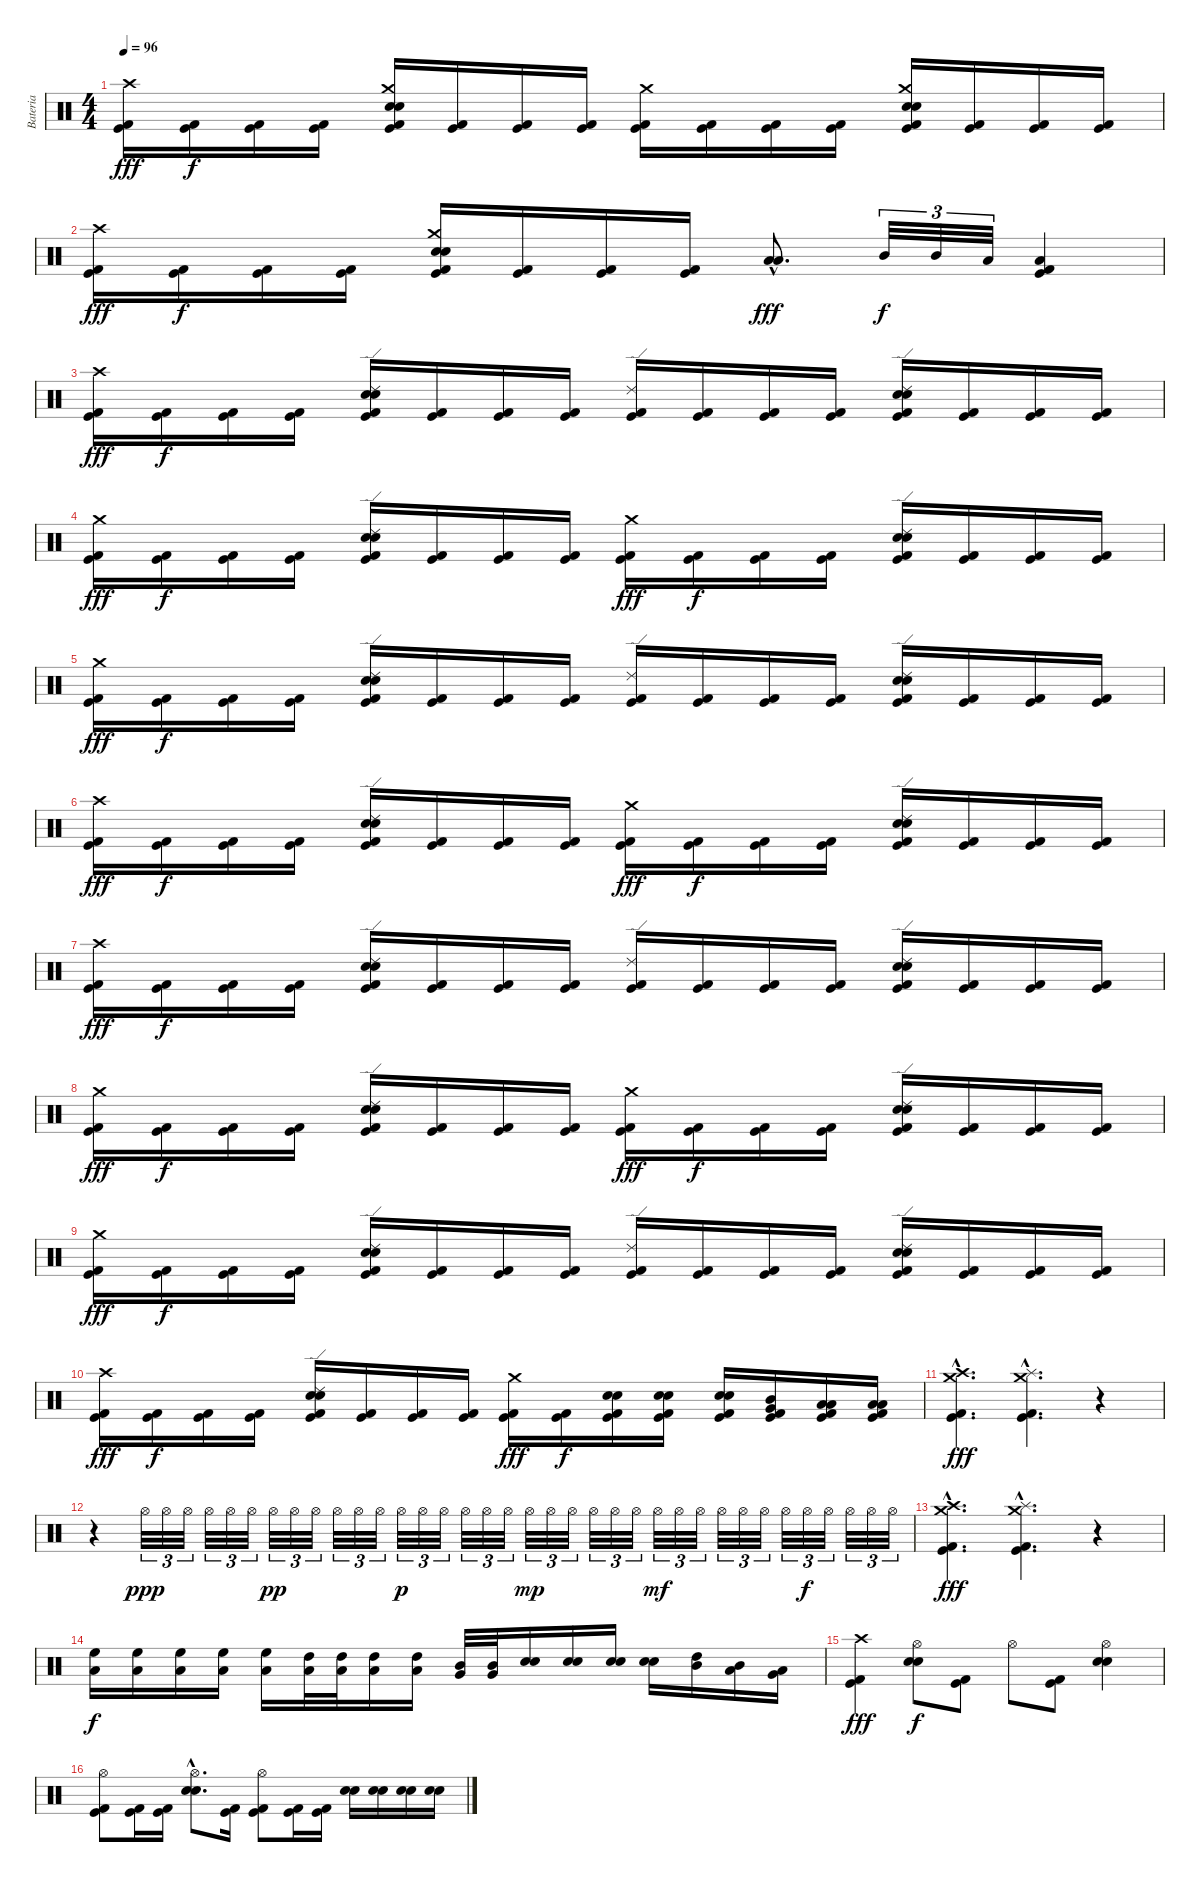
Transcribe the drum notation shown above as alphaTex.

\track ("Bateria" "Bateria") {instrument percussion}
\staff {score}
\articulation defaults
\ts (4 4)
\tempo 96
\clef neutral
\ks c
("Crash high (hit)" "Kick (hit) 2" "Kick (hit)").16{dy fff} ("Kick (hit) 2" "Kick (hit)").16{dy f} ("Kick (hit) 2" "Kick (hit)").16 ("Kick (hit) 2" "Kick (hit)").16 ("Crash medium (hit)" "Electric Snare (hit)" "Snare (hit) 2" "Kick (hit) 2" "Kick (hit)").16 ("Kick (hit) 2" "Kick (hit)").16 ("Kick (hit) 2" "Kick (hit)").16 ("Kick (hit) 2" "Kick (hit)").16 ("Crash medium (hit)" "Kick (hit) 2" "Kick (hit)").16 ("Kick (hit) 2" "Kick (hit)").16 ("Kick (hit) 2" "Kick (hit)").16 ("Kick (hit) 2" "Kick (hit)").16 ("Crash medium (hit)" "Electric Snare (hit)" "Snare (hit) 2" "Kick (hit) 2" "Kick (hit)").16 ("Kick (hit) 2" "Kick (hit)").16 ("Kick (hit) 2" "Kick (hit)").16 ("Kick (hit) 2" "Kick (hit)").16 |
("Crash high (hit)" "Kick (hit) 2" "Kick (hit)").16{dy fff} ("Kick (hit) 2" "Kick (hit)").16{dy f} ("Kick (hit) 2" "Kick (hit)").16 ("Kick (hit) 2" "Kick (hit)").16 ("Crash medium (hit)" "Electric Snare (hit)" "Snare (hit) 2" "Kick (hit) 2" "Kick (hit)").16 ("Kick (hit) 2" "Kick (hit)").16 ("Kick (hit) 2" "Kick (hit)").16 ("Kick (hit) 2" "Kick (hit)").16 ("Low Tom (hit)"{hac} "Low Floor Tom (hit)"{hac}).8{d dy fff} "Mid Tom (hit)".32{tu (3 2) dy f} "Mid Tom (hit)".32{tu (3 2)} "Low Tom (hit)".32{tu (3 2)} ("Low Tom (hit)" "Kick (hit) 2" "Kick (hit)").4 |
("Crash high (hit)" "Kick (hit) 2" "Kick (hit)").16{dy fff} ("Kick (hit) 2" "Kick (hit)").16{dy f} ("Kick (hit) 2" "Kick (hit)").16 ("Kick (hit) 2" "Kick (hit)").16 ("Ride (edge) 2" "Electric Snare (hit)" "Snare (hit) 2" "Kick (hit) 2" "Kick (hit)").16 ("Kick (hit) 2" "Kick (hit)").16 ("Kick (hit) 2" "Kick (hit)").16 ("Kick (hit) 2" "Kick (hit)").16 ("Ride (edge) 2" "Kick (hit) 2" "Kick (hit)").16 ("Kick (hit) 2" "Kick (hit)").16 ("Kick (hit) 2" "Kick (hit)").16 ("Kick (hit) 2" "Kick (hit)").16 ("Ride (edge) 2" "Electric Snare (hit)" "Snare (hit) 2" "Kick (hit) 2" "Kick (hit)").16 ("Kick (hit) 2" "Kick (hit)").16 ("Kick (hit) 2" "Kick (hit)").16 ("Kick (hit) 2" "Kick (hit)").16 |
("Crash medium (hit)" "Kick (hit) 2" "Kick (hit)").16{dy fff} ("Kick (hit) 2" "Kick (hit)").16{dy f} ("Kick (hit) 2" "Kick (hit)").16 ("Kick (hit) 2" "Kick (hit)").16 ("Ride (edge) 2" "Electric Snare (hit)" "Snare (hit) 2" "Kick (hit) 2" "Kick (hit)").16 ("Kick (hit) 2" "Kick (hit)").16 ("Kick (hit) 2" "Kick (hit)").16 ("Kick (hit) 2" "Kick (hit)").16 ("Crash medium (hit)" "Kick (hit) 2" "Kick (hit)").16{dy fff} ("Kick (hit) 2" "Kick (hit)").16{dy f} ("Kick (hit) 2" "Kick (hit)").16 ("Kick (hit) 2" "Kick (hit)").16 ("Ride (edge) 2" "Electric Snare (hit)" "Snare (hit) 2" "Kick (hit) 2" "Kick (hit)").16 ("Kick (hit) 2" "Kick (hit)").16 ("Kick (hit) 2" "Kick (hit)").16 ("Kick (hit) 2" "Kick (hit)").16 |
("Crash medium (hit)" "Kick (hit) 2" "Kick (hit)").16{dy fff} ("Kick (hit) 2" "Kick (hit)").16{dy f} ("Kick (hit) 2" "Kick (hit)").16 ("Kick (hit) 2" "Kick (hit)").16 ("Ride (edge) 2" "Electric Snare (hit)" "Snare (hit) 2" "Kick (hit) 2" "Kick (hit)").16 ("Kick (hit) 2" "Kick (hit)").16 ("Kick (hit) 2" "Kick (hit)").16 ("Kick (hit) 2" "Kick (hit)").16 ("Ride (edge) 2" "Kick (hit) 2" "Kick (hit)").16 ("Kick (hit) 2" "Kick (hit)").16 ("Kick (hit) 2" "Kick (hit)").16 ("Kick (hit) 2" "Kick (hit)").16 ("Ride (edge) 2" "Electric Snare (hit)" "Snare (hit) 2" "Kick (hit) 2" "Kick (hit)").16 ("Kick (hit) 2" "Kick (hit)").16 ("Kick (hit) 2" "Kick (hit)").16 ("Kick (hit) 2" "Kick (hit)").16 |
("Crash high (hit)" "Kick (hit) 2" "Kick (hit)").16{dy fff} ("Kick (hit) 2" "Kick (hit)").16{dy f} ("Kick (hit) 2" "Kick (hit)").16 ("Kick (hit) 2" "Kick (hit)").16 ("Ride (edge) 2" "Electric Snare (hit)" "Snare (hit) 2" "Kick (hit) 2" "Kick (hit)").16 ("Kick (hit) 2" "Kick (hit)").16 ("Kick (hit) 2" "Kick (hit)").16 ("Kick (hit) 2" "Kick (hit)").16 ("Crash medium (hit)" "Kick (hit) 2" "Kick (hit)").16{dy fff} ("Kick (hit) 2" "Kick (hit)").16{dy f} ("Kick (hit) 2" "Kick (hit)").16 ("Kick (hit) 2" "Kick (hit)").16 ("Ride (edge) 2" "Electric Snare (hit)" "Snare (hit) 2" "Kick (hit) 2" "Kick (hit)").16 ("Kick (hit) 2" "Kick (hit)").16 ("Kick (hit) 2" "Kick (hit)").16 ("Kick (hit) 2" "Kick (hit)").16 |
("Crash high (hit)" "Kick (hit) 2" "Kick (hit)").16{dy fff} ("Kick (hit) 2" "Kick (hit)").16{dy f} ("Kick (hit) 2" "Kick (hit)").16 ("Kick (hit) 2" "Kick (hit)").16 ("Ride (edge) 2" "Electric Snare (hit)" "Snare (hit) 2" "Kick (hit) 2" "Kick (hit)").16 ("Kick (hit) 2" "Kick (hit)").16 ("Kick (hit) 2" "Kick (hit)").16 ("Kick (hit) 2" "Kick (hit)").16 ("Ride (edge) 2" "Kick (hit) 2" "Kick (hit)").16 ("Kick (hit) 2" "Kick (hit)").16 ("Kick (hit) 2" "Kick (hit)").16 ("Kick (hit) 2" "Kick (hit)").16 ("Ride (edge) 2" "Electric Snare (hit)" "Snare (hit) 2" "Kick (hit) 2" "Kick (hit)").16 ("Kick (hit) 2" "Kick (hit)").16 ("Kick (hit) 2" "Kick (hit)").16 ("Kick (hit) 2" "Kick (hit)").16 |
("Crash medium (hit)" "Kick (hit) 2" "Kick (hit)").16{dy fff} ("Kick (hit) 2" "Kick (hit)").16{dy f} ("Kick (hit) 2" "Kick (hit)").16 ("Kick (hit) 2" "Kick (hit)").16 ("Ride (edge) 2" "Electric Snare (hit)" "Snare (hit) 2" "Kick (hit) 2" "Kick (hit)").16 ("Kick (hit) 2" "Kick (hit)").16 ("Kick (hit) 2" "Kick (hit)").16 ("Kick (hit) 2" "Kick (hit)").16 ("Crash medium (hit)" "Kick (hit) 2" "Kick (hit)").16{dy fff} ("Kick (hit) 2" "Kick (hit)").16{dy f} ("Kick (hit) 2" "Kick (hit)").16 ("Kick (hit) 2" "Kick (hit)").16 ("Ride (edge) 2" "Electric Snare (hit)" "Snare (hit) 2" "Kick (hit) 2" "Kick (hit)").16 ("Kick (hit) 2" "Kick (hit)").16 ("Kick (hit) 2" "Kick (hit)").16 ("Kick (hit) 2" "Kick (hit)").16 |
("Crash medium (hit)" "Kick (hit) 2" "Kick (hit)").16{dy fff} ("Kick (hit) 2" "Kick (hit)").16{dy f} ("Kick (hit) 2" "Kick (hit)").16 ("Kick (hit) 2" "Kick (hit)").16 ("Ride (edge) 2" "Electric Snare (hit)" "Snare (hit) 2" "Kick (hit) 2" "Kick (hit)").16 ("Kick (hit) 2" "Kick (hit)").16 ("Kick (hit) 2" "Kick (hit)").16 ("Kick (hit) 2" "Kick (hit)").16 ("Ride (edge) 2" "Kick (hit) 2" "Kick (hit)").16 ("Kick (hit) 2" "Kick (hit)").16 ("Kick (hit) 2" "Kick (hit)").16 ("Kick (hit) 2" "Kick (hit)").16 ("Ride (edge) 2" "Electric Snare (hit)" "Snare (hit) 2" "Kick (hit) 2" "Kick (hit)").16 ("Kick (hit) 2" "Kick (hit)").16 ("Kick (hit) 2" "Kick (hit)").16 ("Kick (hit) 2" "Kick (hit)").16 |
("Crash high (hit)" "Kick (hit) 2" "Kick (hit)").16{dy fff} ("Kick (hit) 2" "Kick (hit)").16{dy f} ("Kick (hit) 2" "Kick (hit)").16 ("Kick (hit) 2" "Kick (hit)").16 ("Ride (edge) 2" "Electric Snare (hit)" "Snare (hit) 2" "Kick (hit) 2" "Kick (hit)").16 ("Kick (hit) 2" "Kick (hit)").16 ("Kick (hit) 2" "Kick (hit)").16 ("Kick (hit) 2" "Kick (hit)").16 ("Crash medium (hit)" "Kick (hit) 2" "Kick (hit)").16{dy fff} ("Kick (hit) 2" "Kick (hit)").16{dy f} ("Electric Snare (hit)" "Snare (hit) 2" "Kick (hit) 2" "Kick (hit)").16 ("Electric Snare (hit)" "Snare (hit) 2" "Kick (hit) 2" "Kick (hit)").16 ("Electric Snare (hit)" "Snare (hit) 2" "Kick (hit) 2" "Kick (hit)").16 ("Mid Tom (hit)" "Very Low Tom (hit)" "Kick (hit) 2" "Kick (hit)").16 ("Low Tom (hit)" "Low Floor Tom (hit)" "Kick (hit) 2" "Kick (hit)").16 ("Low Tom (hit)" "Low Floor Tom (hit)" "Kick (hit) 2" "Kick (hit)").16 |
("Crash high (hit)"{hac} "Crash medium (hit)"{hac} "Kick (hit) 2"{hac} "Kick (hit)"{hac}).4{d dy fff} ("Crash medium (hit)"{hac} "Splash (hit)"{hac} "Kick (hit) 2"{hac} "Kick (hit)"{hac}).4{d} r.4 |
r.4 "Hi-Hat (open)".32{tu (3 2) dy ppp} "Hi-Hat (open)".32{tu (3 2)} "Hi-Hat (open)".32{tu (3 2)} "Hi-Hat (open)".32{tu (3 2)} "Hi-Hat (open)".32{tu (3 2)} "Hi-Hat (open)".32{tu (3 2)} "Hi-Hat (open)".32{tu (3 2) dy pp} "Hi-Hat (open)".32{tu (3 2)} "Hi-Hat (open)".32{tu (3 2)} "Hi-Hat (open)".32{tu (3 2)} "Hi-Hat (open)".32{tu (3 2)} "Hi-Hat (open)".32{tu (3 2)} "Hi-Hat (open)".32{tu (3 2) dy p} "Hi-Hat (open)".32{tu (3 2)} "Hi-Hat (open)".32{tu (3 2)} "Hi-Hat (open)".32{tu (3 2)} "Hi-Hat (open)".32{tu (3 2)} "Hi-Hat (open)".32{tu (3 2)} "Hi-Hat (open)".32{tu (3 2) dy mp} "Hi-Hat (open)".32{tu (3 2)} "Hi-Hat (open)".32{tu (3 2)} "Hi-Hat (open)".32{tu (3 2)} "Hi-Hat (open)".32{tu (3 2)} "Hi-Hat (open)".32{tu (3 2)} "Hi-Hat (open)".32{tu (3 2) dy mf} "Hi-Hat (open)".32{tu (3 2)} "Hi-Hat (open)".32{tu (3 2)} "Hi-Hat (open)".32{tu (3 2)} "Hi-Hat (open)".32{tu (3 2)} "Hi-Hat (open)".32{tu (3 2)} "Hi-Hat (open)".32{tu (3 2)} "Hi-Hat (open)".32{tu (3 2) dy f} "Hi-Hat (open)".32{tu (3 2)} "Hi-Hat (open)".32{tu (3 2)} "Hi-Hat (open)".32{tu (3 2)} "Hi-Hat (open)".32{tu (3 2)} |
("Crash high (hit)"{hac} "Crash medium (hit)"{hac} "Kick (hit) 2"{hac} "Kick (hit)"{hac}).4{d dy fff} ("Crash medium (hit)"{hac} "Splash (hit)"{hac} "Kick (hit) 2"{hac} "Kick (hit)"{hac}).4{d} r.4 |
("High Floor Tom (hit)" "Low Tom (hit)").16{dy f} ("High Floor Tom (hit)" "Low Tom (hit)").16 ("High Floor Tom (hit)" "Low Tom (hit)").16 ("High Floor Tom (hit)" "Low Tom (hit)").16 ("High Floor Tom (hit)" "Low Tom (hit)").16 ("High Tom (hit)" "Low Tom (hit)").32 ("High Tom (hit)" "Low Tom (hit)").32 ("High Tom (hit)" "Low Tom (hit)").16 ("High Tom (hit)" "Low Tom (hit)").16 ("Mid Tom (hit)" "Very Low Tom (hit)").32 ("Mid Tom (hit)" "Very Low Tom (hit)").32 ("Electric Snare (hit)" "Snare (hit) 2").16 ("Electric Snare (hit)" "Snare (hit) 2").16 ("Electric Snare (hit)" "Snare (hit) 2").16 ("Electric Snare (hit)" "Snare (hit) 2").16 ("High Tom (hit)" "Mid Tom (hit)").16 ("Mid Tom (hit)" "Low Tom (hit)").16 ("Low Tom (hit)" "Very Low Tom (hit)").16 |
("Crash high (hit)" "Kick (hit) 2" "Kick (hit)").4{dy fff} ("Hi-Hat (open)" "Electric Snare (hit)" "Snare (hit) 2").8{dy f} ("Kick (hit) 2" "Kick (hit)").8 "Hi-Hat (open)".8 ("Kick (hit) 2" "Kick (hit)").8 ("Hi-Hat (open)" "Electric Snare (hit)" "Snare (hit) 2").4 |
("Hi-Hat (open)" "Kick (hit) 2" "Kick (hit)").8 ("Kick (hit) 2" "Kick (hit)").16 ("Kick (hit) 2" "Kick (hit)").16 ("Hi-Hat (open)"{hac} "Electric Snare (hit)"{hac} "Snare (hit) 2"{hac}).8{d} ("Kick (hit) 2" "Kick (hit)").16 ("Hi-Hat (open)" "Kick (hit) 2" "Kick (hit)").8 ("Kick (hit) 2" "Kick (hit)").16 ("Kick (hit) 2" "Kick (hit)").16 ("Electric Snare (hit)" "Snare (hit) 2").16 ("Electric Snare (hit)" "Snare (hit) 2").16 ("Electric Snare (hit)" "Snare (hit) 2").16 ("Electric Snare (hit)" "Snare (hit) 2").16
